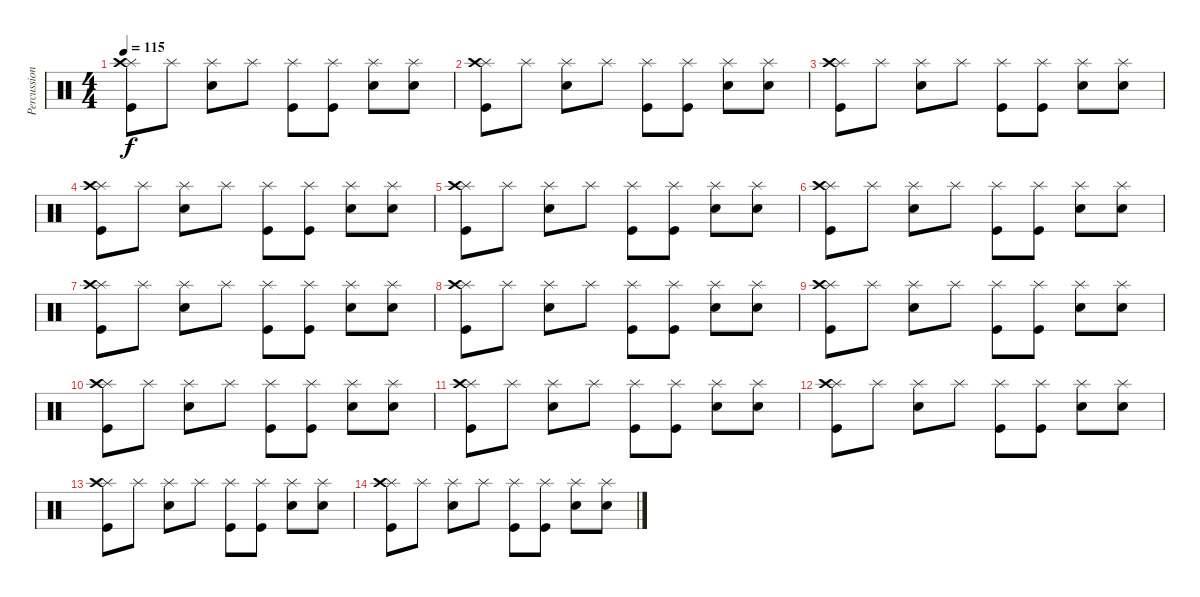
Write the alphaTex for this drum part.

\track ("Percussions" "Percussion") {instrument percussion}
\staff {score}
\articulation defaults
\ts (4 4)
\tempo 115
\clef neutral
\ks c
("Splash (hit)" "Crash high (hit)" "Kick (hit)").8{dy f} "Splash (hit)".8 ("Splash (hit)" "Electric Snare (hit)").8 "Splash (hit)".8 ("Splash (hit)" "Kick (hit)").8 ("Splash (hit)" "Kick (hit)").8 ("Splash (hit)" "Electric Snare (hit)").8 ("Splash (hit)" "Electric Snare (hit)").8 |
("Splash (hit)" "Crash high (hit)" "Kick (hit)").8 "Splash (hit)".8 ("Splash (hit)" "Electric Snare (hit)").8 "Splash (hit)".8 ("Splash (hit)" "Kick (hit)").8 ("Splash (hit)" "Kick (hit)").8 ("Splash (hit)" "Electric Snare (hit)").8 ("Splash (hit)" "Electric Snare (hit)").8 |
("Splash (hit)" "Crash high (hit)" "Kick (hit)").8 "Splash (hit)".8 ("Splash (hit)" "Electric Snare (hit)").8 "Splash (hit)".8 ("Splash (hit)" "Kick (hit)").8 ("Splash (hit)" "Kick (hit)").8 ("Splash (hit)" "Electric Snare (hit)").8 ("Splash (hit)" "Electric Snare (hit)").8 |
("Splash (hit)" "Crash high (hit)" "Kick (hit)").8 "Splash (hit)".8 ("Splash (hit)" "Electric Snare (hit)").8 "Splash (hit)".8 ("Splash (hit)" "Kick (hit)").8 ("Splash (hit)" "Kick (hit)").8 ("Splash (hit)" "Electric Snare (hit)").8 ("Splash (hit)" "Electric Snare (hit)").8 |
("Splash (hit)" "Crash high (hit)" "Kick (hit)").8 "Splash (hit)".8 ("Splash (hit)" "Electric Snare (hit)").8 "Splash (hit)".8 ("Splash (hit)" "Kick (hit)").8 ("Splash (hit)" "Kick (hit)").8 ("Splash (hit)" "Electric Snare (hit)").8 ("Splash (hit)" "Electric Snare (hit)").8 |
("Splash (hit)" "Crash high (hit)" "Kick (hit)").8 "Splash (hit)".8 ("Splash (hit)" "Electric Snare (hit)").8 "Splash (hit)".8 ("Splash (hit)" "Kick (hit)").8 ("Splash (hit)" "Kick (hit)").8 ("Splash (hit)" "Electric Snare (hit)").8 ("Splash (hit)" "Electric Snare (hit)").8 |
("Splash (hit)" "Crash high (hit)" "Kick (hit)").8 "Splash (hit)".8 ("Splash (hit)" "Electric Snare (hit)").8 "Splash (hit)".8 ("Splash (hit)" "Kick (hit)").8 ("Splash (hit)" "Kick (hit)").8 ("Splash (hit)" "Electric Snare (hit)").8 ("Splash (hit)" "Electric Snare (hit)").8 |
("Splash (hit)" "Crash high (hit)" "Kick (hit)").8 "Splash (hit)".8 ("Splash (hit)" "Electric Snare (hit)").8 "Splash (hit)".8 ("Splash (hit)" "Kick (hit)").8 ("Splash (hit)" "Kick (hit)").8 ("Splash (hit)" "Electric Snare (hit)").8 ("Splash (hit)" "Electric Snare (hit)").8 |
("Splash (hit)" "Crash high (hit)" "Kick (hit)").8 "Splash (hit)".8 ("Splash (hit)" "Electric Snare (hit)").8 "Splash (hit)".8 ("Splash (hit)" "Kick (hit)").8 ("Splash (hit)" "Kick (hit)").8 ("Splash (hit)" "Electric Snare (hit)").8 ("Splash (hit)" "Electric Snare (hit)").8 |
("Splash (hit)" "Crash high (hit)" "Kick (hit)").8 "Splash (hit)".8 ("Splash (hit)" "Electric Snare (hit)").8 "Splash (hit)".8 ("Splash (hit)" "Kick (hit)").8 ("Splash (hit)" "Kick (hit)").8 ("Splash (hit)" "Electric Snare (hit)").8 ("Splash (hit)" "Electric Snare (hit)").8 |
("Splash (hit)" "Crash high (hit)" "Kick (hit)").8 "Splash (hit)".8 ("Splash (hit)" "Electric Snare (hit)").8 "Splash (hit)".8 ("Splash (hit)" "Kick (hit)").8 ("Splash (hit)" "Kick (hit)").8 ("Splash (hit)" "Electric Snare (hit)").8 ("Splash (hit)" "Electric Snare (hit)").8 |
("Splash (hit)" "Crash high (hit)" "Kick (hit)").8 "Splash (hit)".8 ("Splash (hit)" "Electric Snare (hit)").8 "Splash (hit)".8 ("Splash (hit)" "Kick (hit)").8 ("Splash (hit)" "Kick (hit)").8 ("Splash (hit)" "Electric Snare (hit)").8 ("Splash (hit)" "Electric Snare (hit)").8 |
("Splash (hit)" "Crash high (hit)" "Kick (hit)").8 "Splash (hit)".8 ("Splash (hit)" "Electric Snare (hit)").8 "Splash (hit)".8 ("Splash (hit)" "Kick (hit)").8 ("Splash (hit)" "Kick (hit)").8 ("Splash (hit)" "Electric Snare (hit)").8 ("Splash (hit)" "Electric Snare (hit)").8 |
("Splash (hit)" "Crash high (hit)" "Kick (hit)").8 "Splash (hit)".8 ("Splash (hit)" "Electric Snare (hit)").8 "Splash (hit)".8 ("Splash (hit)" "Kick (hit)").8 ("Splash (hit)" "Kick (hit)").8 ("Splash (hit)" "Electric Snare (hit)").8 ("Splash (hit)" "Electric Snare (hit)").8
